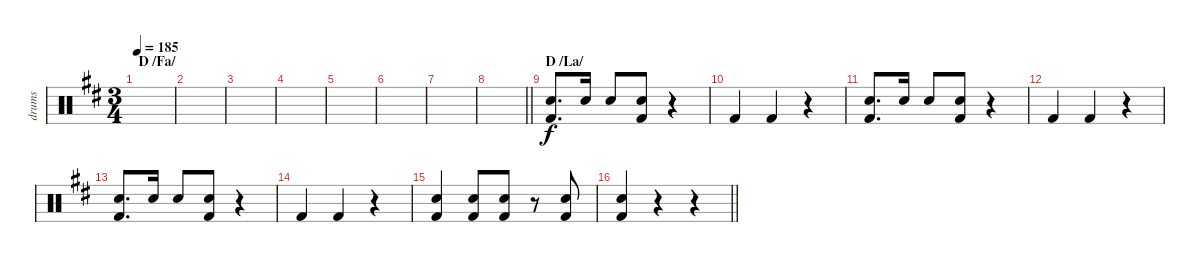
\track ("drums" "drums") {instrument percussion}
\staff {score}
\articulation defaults
\ts (3 4)
\section ("" "D /Fa/")
\tempo 185
\clef neutral
\ks d
|
|
|
|
|
|
|
\barLineRight lightlight
|
\section ("" "D /La/")
("Kick (hit) 2" "Electric Snare (hit)").8{d} "Electric Snare (hit)".16 "Electric Snare (hit)".8 ("Kick (hit) 2" "Electric Snare (hit)").8 r.4 |
"Kick (hit) 2".4 "Kick (hit) 2".4 r.4 |
("Kick (hit) 2" "Electric Snare (hit)").8{d} "Electric Snare (hit)".16 "Electric Snare (hit)".8 ("Kick (hit) 2" "Electric Snare (hit)").8 r.4 |
"Kick (hit) 2".4 "Kick (hit) 2".4 r.4 |
("Kick (hit) 2" "Electric Snare (hit)").8{d} "Electric Snare (hit)".16 "Electric Snare (hit)".8 ("Kick (hit) 2" "Electric Snare (hit)").8 r.4 |
"Kick (hit) 2".4 "Kick (hit) 2".4 r.4 |
("Kick (hit) 2" "Electric Snare (hit)").4 ("Kick (hit) 2" "Electric Snare (hit)").8 ("Kick (hit) 2" "Electric Snare (hit)").8 r.8 ("Kick (hit) 2" "Electric Snare (hit)").8 |
\barLineRight lightlight
("Kick (hit) 2" "Electric Snare (hit)").4 r.4 r.4
